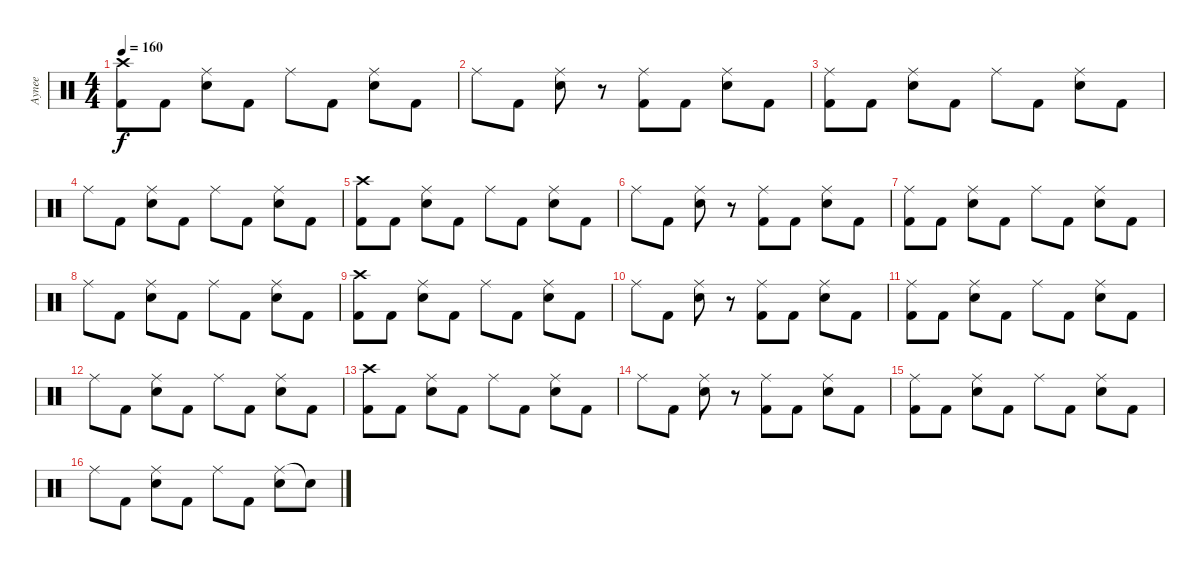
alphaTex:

\track ("Aynee " "Aynee ") {instrument percussion}
\staff {score}
\articulation defaults
\ts (4 4)
\tempo 160
\clef neutral
\ks c
("Crash high (hit)" "Kick (hit) 2").8{dy f} "Kick (hit) 2".8 ("Ride (middle)" "Electric Snare (hit)").8 "Kick (hit) 2".8 "Ride (middle)".8 "Kick (hit) 2".8 ("Ride (middle)" "Electric Snare (hit)").8 "Kick (hit) 2".8 |
"Ride (middle)".8 "Kick (hit) 2".8 ("Ride (middle)" "Electric Snare (hit)").8 r.8 ("Ride (middle)" "Kick (hit) 2").8 "Kick (hit) 2".8 ("Ride (middle)" "Electric Snare (hit)").8 "Kick (hit) 2".8 |
("Ride (middle)" "Kick (hit) 2").8 "Kick (hit) 2".8 ("Ride (middle)" "Electric Snare (hit)").8 "Kick (hit) 2".8 "Ride (middle)".8 "Kick (hit) 2".8 ("Ride (middle)" "Electric Snare (hit)").8 "Kick (hit) 2".8 |
"Ride (middle)".8 "Kick (hit) 2".8 ("Ride (middle)" "Electric Snare (hit)").8 "Kick (hit) 2".8 "Ride (middle)".8 "Kick (hit) 2".8 ("Ride (middle)" "Electric Snare (hit)").8 "Kick (hit) 2".8 |
("Crash high (hit)" "Kick (hit) 2").8 "Kick (hit) 2".8 ("Ride (middle)" "Electric Snare (hit)").8 "Kick (hit) 2".8 "Ride (middle)".8 "Kick (hit) 2".8 ("Ride (middle)" "Electric Snare (hit)").8 "Kick (hit) 2".8 |
"Ride (middle)".8 "Kick (hit) 2".8 ("Ride (middle)" "Electric Snare (hit)").8 r.8 ("Ride (middle)" "Kick (hit) 2").8 "Kick (hit) 2".8 ("Ride (middle)" "Electric Snare (hit)").8 "Kick (hit) 2".8 |
("Ride (middle)" "Kick (hit) 2").8 "Kick (hit) 2".8 ("Ride (middle)" "Electric Snare (hit)").8 "Kick (hit) 2".8 "Ride (middle)".8 "Kick (hit) 2".8 ("Ride (middle)" "Electric Snare (hit)").8 "Kick (hit) 2".8 |
"Ride (middle)".8 "Kick (hit) 2".8 ("Ride (middle)" "Electric Snare (hit)").8 "Kick (hit) 2".8 "Ride (middle)".8 "Kick (hit) 2".8 ("Ride (middle)" "Electric Snare (hit)").8 "Kick (hit) 2".8 |
("Crash high (hit)" "Kick (hit) 2").8 "Kick (hit) 2".8 ("Ride (middle)" "Electric Snare (hit)").8 "Kick (hit) 2".8 "Ride (middle)".8 "Kick (hit) 2".8 ("Ride (middle)" "Electric Snare (hit)").8 "Kick (hit) 2".8 |
"Ride (middle)".8 "Kick (hit) 2".8 ("Ride (middle)" "Electric Snare (hit)").8 r.8 ("Ride (middle)" "Kick (hit) 2").8 "Kick (hit) 2".8 ("Ride (middle)" "Electric Snare (hit)").8 "Kick (hit) 2".8 |
("Ride (middle)" "Kick (hit) 2").8 "Kick (hit) 2".8 ("Ride (middle)" "Electric Snare (hit)").8 "Kick (hit) 2".8 "Ride (middle)".8 "Kick (hit) 2".8 ("Ride (middle)" "Electric Snare (hit)").8 "Kick (hit) 2".8 |
"Ride (middle)".8 "Kick (hit) 2".8 ("Ride (middle)" "Electric Snare (hit)").8 "Kick (hit) 2".8 "Ride (middle)".8 "Kick (hit) 2".8 ("Ride (middle)" "Electric Snare (hit)").8 "Kick (hit) 2".8 |
("Crash high (hit)" "Kick (hit) 2").8 "Kick (hit) 2".8 ("Ride (middle)" "Electric Snare (hit)").8 "Kick (hit) 2".8 "Ride (middle)".8 "Kick (hit) 2".8 ("Ride (middle)" "Electric Snare (hit)").8 "Kick (hit) 2".8 |
"Ride (middle)".8 "Kick (hit) 2".8 ("Ride (middle)" "Electric Snare (hit)").8 r.8 ("Ride (middle)" "Kick (hit) 2").8 "Kick (hit) 2".8 ("Ride (middle)" "Electric Snare (hit)").8 "Kick (hit) 2".8 |
("Ride (middle)" "Kick (hit) 2").8 "Kick (hit) 2".8 ("Ride (middle)" "Electric Snare (hit)").8 "Kick (hit) 2".8 "Ride (middle)".8 "Kick (hit) 2".8 ("Ride (middle)" "Electric Snare (hit)").8 "Kick (hit) 2".8 |
"Ride (middle)".8 "Kick (hit) 2".8 ("Ride (middle)" "Electric Snare (hit)").8 "Kick (hit) 2".8 "Ride (middle)".8 "Kick (hit) 2".8 ("Ride (middle)" "Electric Snare (hit)").8 "Snare (hit)"{t}.8
